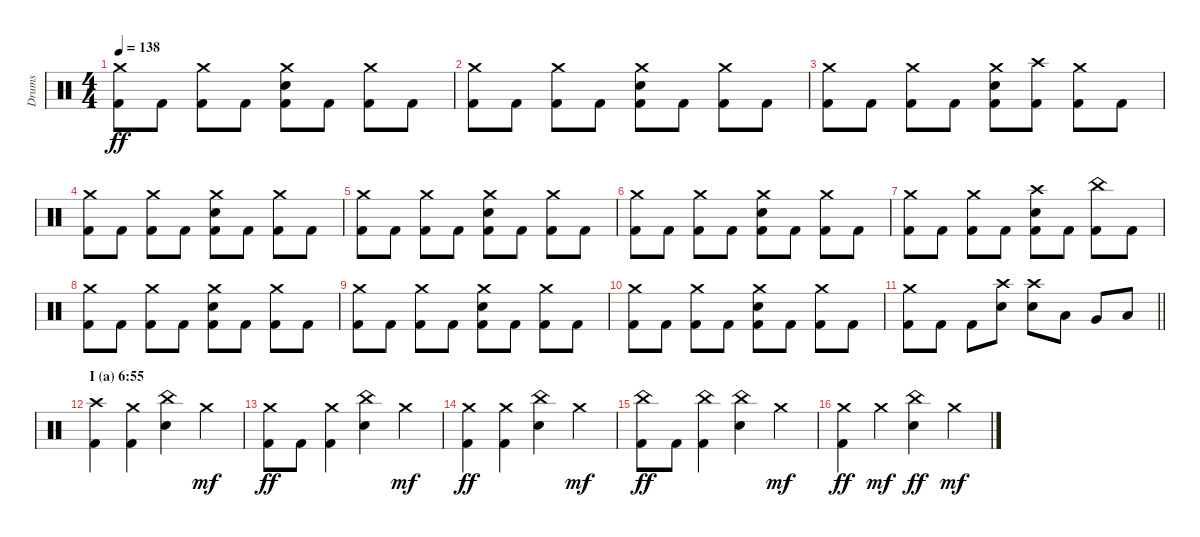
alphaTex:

\track ("Drums" "Drums") {instrument percussion}
\staff {score}
\articulation defaults
\ts (4 4)
\tempo 138
\clef neutral
\ks c
("Crash medium (hit)" "Kick (hit) 2").8{dy ff} "Kick (hit) 2".8 ("Crash medium (hit)" "Kick (hit) 2").8 "Kick (hit) 2".8 ("Crash medium (hit)" "Electric Snare (hit)" "Kick (hit) 2").8 "Kick (hit) 2".8 ("Crash medium (hit)" "Kick (hit) 2").8 "Kick (hit) 2".8 |
("Crash medium (hit)" "Kick (hit) 2").8 "Kick (hit) 2".8 ("Crash medium (hit)" "Kick (hit) 2").8 "Kick (hit) 2".8 ("Crash medium (hit)" "Electric Snare (hit)" "Kick (hit) 2").8 "Kick (hit) 2".8 ("Crash medium (hit)" "Kick (hit) 2").8 "Kick (hit) 2".8 |
("Crash medium (hit)" "Kick (hit) 2").8 "Kick (hit) 2".8 ("Crash medium (hit)" "Kick (hit) 2").8 "Kick (hit) 2".8 ("Crash medium (hit)" "Electric Snare (hit)" "Kick (hit) 2").8 ("Crash high (hit)" "Kick (hit) 2").8 ("Crash medium (hit)" "Kick (hit) 2").8 "Kick (hit) 2".8 |
("Crash medium (hit)" "Kick (hit) 2").8 "Kick (hit) 2".8 ("Crash medium (hit)" "Kick (hit) 2").8 "Kick (hit) 2".8 ("Crash medium (hit)" "Electric Snare (hit)" "Kick (hit) 2").8 "Kick (hit) 2".8 ("Crash medium (hit)" "Kick (hit) 2").8 "Kick (hit) 2".8 |
("Crash medium (hit)" "Kick (hit) 2").8 "Kick (hit) 2".8 ("Crash medium (hit)" "Kick (hit) 2").8 "Kick (hit) 2".8 ("Crash medium (hit)" "Electric Snare (hit)" "Kick (hit) 2").8 "Kick (hit) 2".8 ("Crash medium (hit)" "Kick (hit) 2").8 "Kick (hit) 2".8 |
("Crash medium (hit)" "Kick (hit) 2").8 "Kick (hit) 2".8 ("Crash medium (hit)" "Kick (hit) 2").8 "Kick (hit) 2".8 ("Crash medium (hit)" "Electric Snare (hit)" "Kick (hit) 2").8 "Kick (hit) 2".8 ("Crash medium (hit)" "Kick (hit) 2").8 "Kick (hit) 2".8 |
("Crash medium (hit)" "Kick (hit) 2").8 "Kick (hit) 2".8 ("Crash medium (hit)" "Kick (hit) 2").8 "Kick (hit) 2".8 ("Crash high (hit)" "Electric Snare (hit)" "Kick (hit) 2").8 "Kick (hit) 2".8 ("China (hit)" "Kick (hit) 2").8 "Kick (hit) 2".8 |
("Crash medium (hit)" "Kick (hit) 2").8 "Kick (hit) 2".8 ("Crash medium (hit)" "Kick (hit) 2").8 "Kick (hit) 2".8 ("Crash medium (hit)" "Electric Snare (hit)" "Kick (hit) 2").8 "Kick (hit) 2".8 ("Crash medium (hit)" "Kick (hit) 2").8 "Kick (hit) 2".8 |
("Crash medium (hit)" "Kick (hit) 2").8 "Kick (hit) 2".8 ("Crash medium (hit)" "Kick (hit) 2").8 "Kick (hit) 2".8 ("Crash medium (hit)" "Electric Snare (hit)" "Kick (hit) 2").8 "Kick (hit) 2".8 ("Crash medium (hit)" "Kick (hit) 2").8 "Kick (hit) 2".8 |
("Crash medium (hit)" "Kick (hit) 2").8 "Kick (hit) 2".8 ("Crash medium (hit)" "Kick (hit) 2").8 "Kick (hit) 2".8 ("Crash medium (hit)" "Electric Snare (hit)" "Kick (hit) 2").8 "Kick (hit) 2".8 ("Crash medium (hit)" "Kick (hit) 2").8 "Kick (hit) 2".8 |
\barLineRight lightlight
("Crash medium (hit)" "Kick (hit) 2").8 "Kick (hit) 2".8 "Kick (hit) 2".8 ("Crash high (hit)" "Electric Snare (hit)").8 ("Crash high (hit)" "Electric Snare (hit)").8 "Low Tom (hit)".8 "Very Low Tom (hit)".8 "Low Floor Tom (hit)".8 |
\section ("" "I (a) 6:55")
("Crash high (hit)" "Kick (hit) 2").4 ("Crash medium (hit)" "Kick (hit) 2").4 ("China (hit)" "Electric Snare (hit)").4 "Crash medium (hit)".4{dy mf} |
("Crash medium (hit)" "Kick (hit) 2").8{dy ff} "Kick (hit) 2".8 ("Crash medium (hit)" "Kick (hit) 2").4 ("China (hit)" "Electric Snare (hit)").4 "Crash medium (hit)".4{dy mf} |
("Crash medium (hit)" "Kick (hit) 2").4{dy ff} ("Crash medium (hit)" "Kick (hit) 2").4 ("China (hit)" "Electric Snare (hit)").4 "Crash medium (hit)".4{dy mf} |
("China (hit)" "Kick (hit) 2").8{dy ff} "Kick (hit) 2".8 ("China (hit)" "Kick (hit) 2").4 ("China (hit)" "Electric Snare (hit)").4 "Crash medium (hit)".4{dy mf} |
("Crash medium (hit)" "Kick (hit) 2").4{dy ff} "Crash medium (hit)".4{dy mf} ("China (hit)" "Electric Snare (hit)").4{dy ff} "Crash medium (hit)".4{dy mf}
